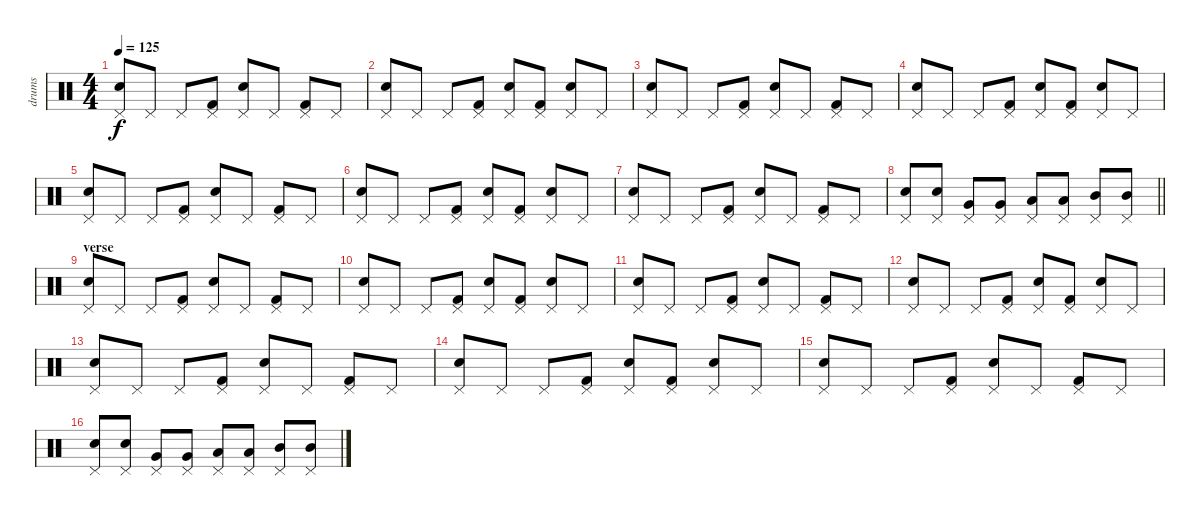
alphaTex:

\track ("drums" "drums") {instrument percussion}
\staff {score}
\articulation defaults
\ts (4 4)
\tempo 125
\clef neutral
\ks c
("Pedal Hi-Hat (hit)" "Snare (hit) 2").8{dy f} "Pedal Hi-Hat (hit)".8 "Pedal Hi-Hat (hit)".8 ("Pedal Hi-Hat (hit)" "Kick (hit) 2").8 ("Pedal Hi-Hat (hit)" "Snare (hit) 2").8 "Pedal Hi-Hat (hit)".8 ("Pedal Hi-Hat (hit)" "Kick (hit) 2").8 "Pedal Hi-Hat (hit)".8 |
("Pedal Hi-Hat (hit)" "Snare (hit) 2").8 "Pedal Hi-Hat (hit)".8 "Pedal Hi-Hat (hit)".8 ("Pedal Hi-Hat (hit)" "Kick (hit) 2").8 ("Pedal Hi-Hat (hit)" "Snare (hit) 2").8 ("Pedal Hi-Hat (hit)" "Kick (hit) 2").8 ("Pedal Hi-Hat (hit)" "Snare (hit) 2").8 "Pedal Hi-Hat (hit)".8 |
("Pedal Hi-Hat (hit)" "Snare (hit) 2").8 "Pedal Hi-Hat (hit)".8 "Pedal Hi-Hat (hit)".8 ("Pedal Hi-Hat (hit)" "Kick (hit) 2").8 ("Pedal Hi-Hat (hit)" "Snare (hit) 2").8 "Pedal Hi-Hat (hit)".8 ("Pedal Hi-Hat (hit)" "Kick (hit) 2").8 "Pedal Hi-Hat (hit)".8 |
("Pedal Hi-Hat (hit)" "Snare (hit) 2").8 "Pedal Hi-Hat (hit)".8 "Pedal Hi-Hat (hit)".8 ("Pedal Hi-Hat (hit)" "Kick (hit) 2").8 ("Pedal Hi-Hat (hit)" "Snare (hit) 2").8 ("Pedal Hi-Hat (hit)" "Kick (hit) 2").8 ("Pedal Hi-Hat (hit)" "Snare (hit) 2").8 "Pedal Hi-Hat (hit)".8 |
("Pedal Hi-Hat (hit)" "Snare (hit) 2").8 "Pedal Hi-Hat (hit)".8 "Pedal Hi-Hat (hit)".8 ("Pedal Hi-Hat (hit)" "Kick (hit) 2").8 ("Pedal Hi-Hat (hit)" "Snare (hit) 2").8 "Pedal Hi-Hat (hit)".8 ("Pedal Hi-Hat (hit)" "Kick (hit) 2").8 "Pedal Hi-Hat (hit)".8 |
("Pedal Hi-Hat (hit)" "Snare (hit) 2").8 "Pedal Hi-Hat (hit)".8 "Pedal Hi-Hat (hit)".8 ("Pedal Hi-Hat (hit)" "Kick (hit) 2").8 ("Pedal Hi-Hat (hit)" "Snare (hit) 2").8 ("Pedal Hi-Hat (hit)" "Kick (hit) 2").8 ("Pedal Hi-Hat (hit)" "Snare (hit) 2").8 "Pedal Hi-Hat (hit)".8 |
("Pedal Hi-Hat (hit)" "Snare (hit) 2").8 "Pedal Hi-Hat (hit)".8 "Pedal Hi-Hat (hit)".8 ("Pedal Hi-Hat (hit)" "Kick (hit) 2").8 ("Pedal Hi-Hat (hit)" "Snare (hit) 2").8 "Pedal Hi-Hat (hit)".8 ("Pedal Hi-Hat (hit)" "Kick (hit) 2").8 "Pedal Hi-Hat (hit)".8 |
\barLineRight lightlight
("Pedal Hi-Hat (hit)" "Snare (hit) 2").8 ("Pedal Hi-Hat (hit)" "Snare (hit) 2").8 ("Pedal Hi-Hat (hit)" "Very Low Tom (hit)").8 ("Pedal Hi-Hat (hit)" "Very Low Tom (hit)").8 ("Pedal Hi-Hat (hit)" "Low Tom (hit)").8 ("Pedal Hi-Hat (hit)" "Low Tom (hit)").8 ("Pedal Hi-Hat (hit)" "Mid Tom (hit)").8 ("Pedal Hi-Hat (hit)" "Mid Tom (hit)").8 |
\section ("" "verse")
("Pedal Hi-Hat (hit)" "Snare (hit) 2").8 "Pedal Hi-Hat (hit)".8 "Pedal Hi-Hat (hit)".8 ("Pedal Hi-Hat (hit)" "Kick (hit) 2").8 ("Pedal Hi-Hat (hit)" "Snare (hit) 2").8 "Pedal Hi-Hat (hit)".8 ("Pedal Hi-Hat (hit)" "Kick (hit) 2").8 "Pedal Hi-Hat (hit)".8 |
("Pedal Hi-Hat (hit)" "Snare (hit) 2").8 "Pedal Hi-Hat (hit)".8 "Pedal Hi-Hat (hit)".8 ("Pedal Hi-Hat (hit)" "Kick (hit) 2").8 ("Pedal Hi-Hat (hit)" "Snare (hit) 2").8 ("Pedal Hi-Hat (hit)" "Kick (hit) 2").8 ("Pedal Hi-Hat (hit)" "Snare (hit) 2").8 "Pedal Hi-Hat (hit)".8 |
("Pedal Hi-Hat (hit)" "Snare (hit) 2").8 "Pedal Hi-Hat (hit)".8 "Pedal Hi-Hat (hit)".8 ("Pedal Hi-Hat (hit)" "Kick (hit) 2").8 ("Pedal Hi-Hat (hit)" "Snare (hit) 2").8 "Pedal Hi-Hat (hit)".8 ("Pedal Hi-Hat (hit)" "Kick (hit) 2").8 "Pedal Hi-Hat (hit)".8 |
("Pedal Hi-Hat (hit)" "Snare (hit) 2").8 "Pedal Hi-Hat (hit)".8 "Pedal Hi-Hat (hit)".8 ("Pedal Hi-Hat (hit)" "Kick (hit) 2").8 ("Pedal Hi-Hat (hit)" "Snare (hit) 2").8 ("Pedal Hi-Hat (hit)" "Kick (hit) 2").8 ("Pedal Hi-Hat (hit)" "Snare (hit) 2").8 "Pedal Hi-Hat (hit)".8 |
("Pedal Hi-Hat (hit)" "Snare (hit) 2").8 "Pedal Hi-Hat (hit)".8 "Pedal Hi-Hat (hit)".8 ("Pedal Hi-Hat (hit)" "Kick (hit) 2").8 ("Pedal Hi-Hat (hit)" "Snare (hit) 2").8 "Pedal Hi-Hat (hit)".8 ("Pedal Hi-Hat (hit)" "Kick (hit) 2").8 "Pedal Hi-Hat (hit)".8 |
("Pedal Hi-Hat (hit)" "Snare (hit) 2").8 "Pedal Hi-Hat (hit)".8 "Pedal Hi-Hat (hit)".8 ("Pedal Hi-Hat (hit)" "Kick (hit) 2").8 ("Pedal Hi-Hat (hit)" "Snare (hit) 2").8 ("Pedal Hi-Hat (hit)" "Kick (hit) 2").8 ("Pedal Hi-Hat (hit)" "Snare (hit) 2").8 "Pedal Hi-Hat (hit)".8 |
("Pedal Hi-Hat (hit)" "Snare (hit) 2").8 "Pedal Hi-Hat (hit)".8 "Pedal Hi-Hat (hit)".8 ("Pedal Hi-Hat (hit)" "Kick (hit) 2").8 ("Pedal Hi-Hat (hit)" "Snare (hit) 2").8 "Pedal Hi-Hat (hit)".8 ("Pedal Hi-Hat (hit)" "Kick (hit) 2").8 "Pedal Hi-Hat (hit)".8 |
("Pedal Hi-Hat (hit)" "Snare (hit) 2").8 ("Pedal Hi-Hat (hit)" "Snare (hit) 2").8 ("Pedal Hi-Hat (hit)" "Very Low Tom (hit)").8 ("Pedal Hi-Hat (hit)" "Very Low Tom (hit)").8 ("Pedal Hi-Hat (hit)" "Low Tom (hit)").8 ("Pedal Hi-Hat (hit)" "Low Tom (hit)").8 ("Pedal Hi-Hat (hit)" "Mid Tom (hit)").8 ("Pedal Hi-Hat (hit)" "Mid Tom (hit)").8
